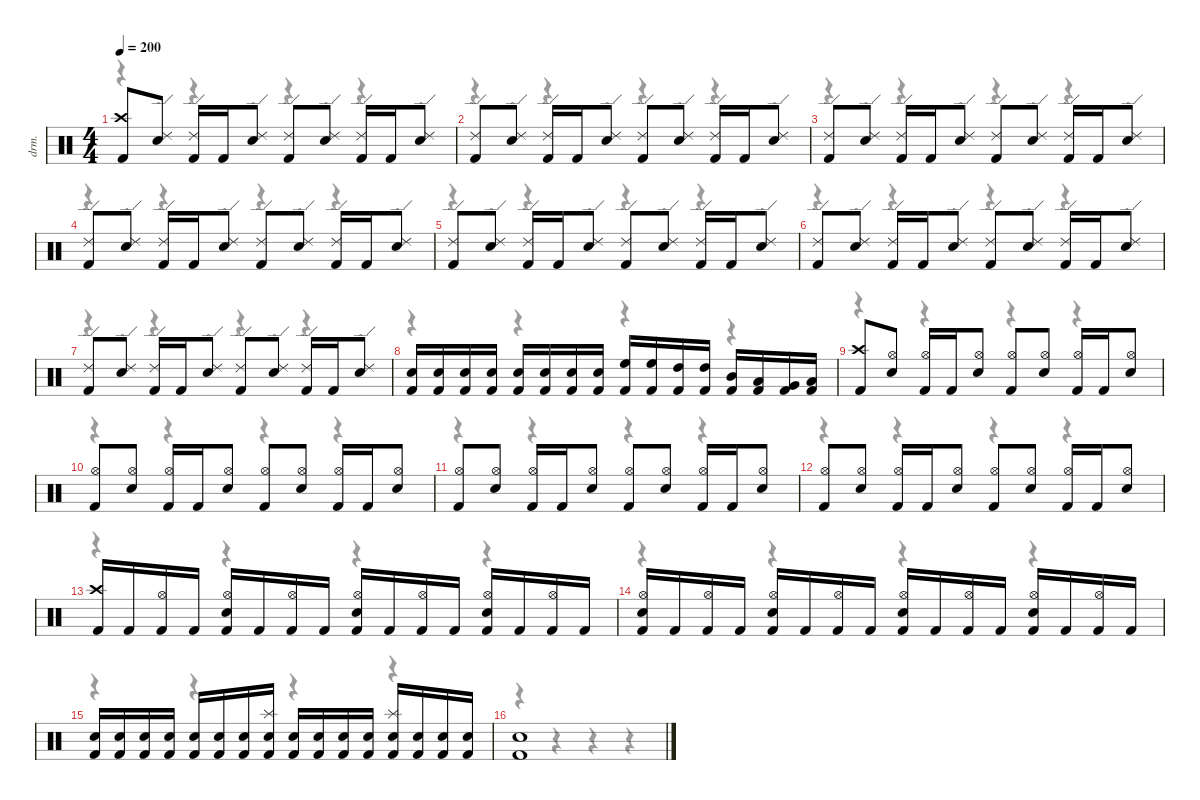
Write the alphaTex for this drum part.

\hideDynamics
\bracketExtendMode nobrackets
\otherSystemsTrackNameOrientation horizontal
\track ("Drums" "drm.") {instrument percussion}
\staff {score}
\articulation defaults
\voice
\ts (4 4)
\section ("" "")
\scale
0.98318
\tempo 200
\accidentals auto
\clef neutral
\ottava regular
\simile none
\ks c
("Kick (hit) 2" "Crash high (hit)").8{dy f} ("Snare (hit) 2" "Ride (edge) 2").8 ("Kick (hit) 2" "Ride (edge) 2").16 "Kick (hit) 2".16 ("Snare (hit) 2" "Ride (edge) 2").8 ("Kick (hit) 2" "Ride (edge) 2").8 ("Snare (hit) 2" "Ride (edge) 2").8 ("Kick (hit) 2" "Ride (edge) 2").16 "Kick (hit) 2".16 ("Snare (hit) 2" "Ride (edge) 2").8 |
\scale
0.98318 ("Kick (hit) 2" "Ride (edge) 2").8 ("Snare (hit) 2" "Ride (edge) 2").8 ("Kick (hit) 2" "Ride (edge) 2").16 "Kick (hit) 2".16 ("Snare (hit) 2" "Ride (edge) 2").8 ("Kick (hit) 2" "Ride (edge) 2").8 ("Snare (hit) 2" "Ride (edge) 2").8 ("Kick (hit) 2" "Ride (edge) 2").16 "Kick (hit) 2".16 ("Snare (hit) 2" "Ride (edge) 2").8 |
\scale
0.98318 ("Kick (hit) 2" "Ride (edge) 2").8 ("Snare (hit) 2" "Ride (edge) 2").8 ("Kick (hit) 2" "Ride (edge) 2").16 "Kick (hit) 2".16 ("Snare (hit) 2" "Ride (edge) 2").8 ("Kick (hit) 2" "Ride (edge) 2").8 ("Snare (hit) 2" "Ride (edge) 2").8 ("Kick (hit) 2" "Ride (edge) 2").16 "Kick (hit) 2".16 ("Snare (hit) 2" "Ride (edge) 2").8 |
\scale
0.98318 ("Kick (hit) 2" "Ride (edge) 2").8 ("Snare (hit) 2" "Ride (edge) 2").8 ("Kick (hit) 2" "Ride (edge) 2").16 "Kick (hit) 2".16 ("Snare (hit) 2" "Ride (edge) 2").8 ("Kick (hit) 2" "Ride (edge) 2").8 ("Snare (hit) 2" "Ride (edge) 2").8 ("Kick (hit) 2" "Ride (edge) 2").16 "Kick (hit) 2".16 ("Snare (hit) 2" "Ride (edge) 2").8 |
\scale
1.08584 ("Kick (hit) 2" "Ride (edge) 2").8 ("Snare (hit) 2" "Ride (edge) 2").8 ("Kick (hit) 2" "Ride (edge) 2").16 "Kick (hit) 2".16 ("Snare (hit) 2" "Ride (edge) 2").8 ("Kick (hit) 2" "Ride (edge) 2").8 ("Snare (hit) 2" "Ride (edge) 2").8 ("Kick (hit) 2" "Ride (edge) 2").16 "Kick (hit) 2".16 ("Snare (hit) 2" "Ride (edge) 2").8 |
\scale
0.97889 ("Kick (hit) 2" "Ride (edge) 2").8 ("Snare (hit) 2" "Ride (edge) 2").8 ("Kick (hit) 2" "Ride (edge) 2").16 "Kick (hit) 2".16 ("Snare (hit) 2" "Ride (edge) 2").8 ("Kick (hit) 2" "Ride (edge) 2").8 ("Snare (hit) 2" "Ride (edge) 2").8 ("Kick (hit) 2" "Ride (edge) 2").16 "Kick (hit) 2".16 ("Snare (hit) 2" "Ride (edge) 2").8 |
\scale
0.971534 ("Kick (hit) 2" "Ride (edge) 2").8 ("Snare (hit) 2" "Ride (edge) 2").8 ("Kick (hit) 2" "Ride (edge) 2").16 "Kick (hit) 2".16 ("Snare (hit) 2" "Ride (edge) 2").8 ("Kick (hit) 2" "Ride (edge) 2").8 ("Snare (hit) 2" "Ride (edge) 2").8 ("Kick (hit) 2" "Ride (edge) 2").16 "Kick (hit) 2".16 ("Snare (hit) 2" "Ride (edge) 2").8 |
\scale
0.991247 ("Kick (hit) 2" "Snare (hit) 2").16 ("Kick (hit) 2" "Snare (hit) 2").16 ("Kick (hit) 2" "Snare (hit) 2").16 ("Kick (hit) 2" "Snare (hit) 2").16 ("Kick (hit) 2" "Snare (hit) 2").16 ("Kick (hit) 2" "Snare (hit) 2").16 ("Kick (hit) 2" "Snare (hit) 2").16 ("Kick (hit) 2" "Snare (hit) 2").16 ("Kick (hit) 2" "High Floor Tom (hit)").16 ("Kick (hit) 2" "High Floor Tom (hit)").16 ("Kick (hit) 2" "High Tom (hit)").16 ("Kick (hit) 2" "High Tom (hit)").16 ("Kick (hit) 2" "Mid Tom (hit)").16 ("Kick (hit) 2" "Low Tom (hit)").16 ("Kick (hit) 2" "Very Low Tom (hit)").16 ("Kick (hit) 2" "Low Floor Tom (hit)").16 |
\section ("" "")
\scale
1.00096 ("Kick (hit) 2" "Crash high (hit)").8 ("Snare (hit) 2" "Hi-Hat (open)").8 ("Kick (hit) 2" "Hi-Hat (open)").16 "Kick (hit) 2".16 ("Snare (hit) 2" "Hi-Hat (open)").8 ("Kick (hit) 2" "Hi-Hat (open)").8 ("Snare (hit) 2" "Hi-Hat (open)").8 ("Kick (hit) 2" "Hi-Hat (open)").16 "Kick (hit) 2".16 ("Snare (hit) 2" "Hi-Hat (open)").8 |
\scale
0.971534 ("Kick (hit) 2" "Hi-Hat (open)").8 ("Snare (hit) 2" "Hi-Hat (open)").8 ("Kick (hit) 2" "Hi-Hat (open)").16 "Kick (hit) 2".16 ("Snare (hit) 2" "Hi-Hat (open)").8 ("Kick (hit) 2" "Hi-Hat (open)").8 ("Snare (hit) 2" "Hi-Hat (open)").8 ("Kick (hit) 2" "Hi-Hat (open)").16 "Kick (hit) 2".16 ("Snare (hit) 2" "Hi-Hat (open)").8 |
\scale
1.07235 ("Kick (hit) 2" "Hi-Hat (open)").8 ("Snare (hit) 2" "Hi-Hat (open)").8 ("Kick (hit) 2" "Hi-Hat (open)").16 "Kick (hit) 2".16 ("Snare (hit) 2" "Hi-Hat (open)").8 ("Kick (hit) 2" "Hi-Hat (open)").8 ("Snare (hit) 2" "Hi-Hat (open)").8 ("Kick (hit) 2" "Hi-Hat (open)").16 "Kick (hit) 2".16 ("Snare (hit) 2" "Hi-Hat (open)").8 |
\scale
0.980115 ("Kick (hit) 2" "Hi-Hat (open)").8 ("Snare (hit) 2" "Hi-Hat (open)").8 ("Kick (hit) 2" "Hi-Hat (open)").16 "Kick (hit) 2".16 ("Snare (hit) 2" "Hi-Hat (open)").8 ("Kick (hit) 2" "Hi-Hat (open)").8 ("Snare (hit) 2" "Hi-Hat (open)").8 ("Kick (hit) 2" "Hi-Hat (open)").16 "Kick (hit) 2".16 ("Snare (hit) 2" "Hi-Hat (open)").8 |
\scale
0.980115 ("Kick (hit) 2" "Crash high (hit)").16 "Kick (hit) 2".16 ("Kick (hit) 2" "Hi-Hat (open)").16 "Kick (hit) 2".16 ("Kick (hit) 2" "Snare (hit) 2" "Hi-Hat (open)").16 "Kick (hit) 2".16 ("Kick (hit) 2" "Hi-Hat (open)").16 "Kick (hit) 2".16 ("Kick (hit) 2" "Snare (hit) 2" "Hi-Hat (open)").16 "Kick (hit) 2".16 ("Kick (hit) 2" "Hi-Hat (open)").16 "Kick (hit) 2".16 ("Kick (hit) 2" "Snare (hit) 2" "Hi-Hat (open)").16 "Kick (hit) 2".16 ("Kick (hit) 2" "Hi-Hat (open)").16 "Kick (hit) 2".16 |
\scale
0.987471 ("Kick (hit) 2" "Snare (hit) 2" "Hi-Hat (open)").16 "Kick (hit) 2".16 ("Kick (hit) 2" "Hi-Hat (open)").16 "Kick (hit) 2".16 ("Kick (hit) 2" "Snare (hit) 2" "Hi-Hat (open)").16 "Kick (hit) 2".16 ("Kick (hit) 2" "Hi-Hat (open)").16 "Kick (hit) 2".16 ("Kick (hit) 2" "Snare (hit) 2" "Hi-Hat (open)").16 "Kick (hit) 2".16 ("Kick (hit) 2" "Hi-Hat (open)").16 "Kick (hit) 2".16 ("Kick (hit) 2" "Snare (hit) 2" "Hi-Hat (open)").16 "Kick (hit) 2".16 ("Kick (hit) 2" "Hi-Hat (open)").16 "Kick (hit) 2".16 |
\scale
0.987471 ("Kick (hit) 2" "Snare (hit) 2").16 ("Kick (hit) 2" "Snare (hit) 2").16 ("Kick (hit) 2" "Snare (hit) 2").16 ("Kick (hit) 2" "Snare (hit) 2").16 ("Kick (hit) 2" "Snare (hit) 2").16 ("Kick (hit) 2" "Snare (hit) 2").16 ("Kick (hit) 2" "Snare (hit) 2").16 ("Kick (hit) 2" "Snare (hit) 2" "Splash (hit)").16 ("Kick (hit) 2" "Snare (hit) 2").16 ("Kick (hit) 2" "Snare (hit) 2").16 ("Kick (hit) 2" "Snare (hit) 2").16 ("Kick (hit) 2" "Snare (hit) 2").16 ("Kick (hit) 2" "Snare (hit) 2" "Splash (hit)").16 ("Kick (hit) 2" "Snare (hit) 2").16 ("Kick (hit) 2" "Snare (hit) 2").16 ("Kick (hit) 2" "Snare (hit) 2").16 |
\scale
0.992473 ("Kick (hit) 2" "Snare (hit) 2").1
\voice
\clef neutral
\ottava regular
\simile none
\ks c
r.4{dy mf} r.4 r.4 r.4 |
r.4 r.4 r.4 r.4 |
r.4 r.4 r.4 r.4 |
r.4 r.4 r.4 r.4 |
r.4 r.4 r.4 r.4 |
r.4 r.4 r.4 r.4 |
r.4 r.4 r.4 r.4 |
r.4 r.4 r.4 r.4 |
r.4 r.4 r.4 r.4 |
r.4 r.4 r.4 r.4 |
r.4 r.4 r.4 r.4 |
r.4 r.4 r.4 r.4 |
r.4 r.4 r.4 r.4 |
r.4 r.4 r.4 r.4 |
r.4 r.4 r.4 r.4 |
r.4 r.4 r.4 r.4
